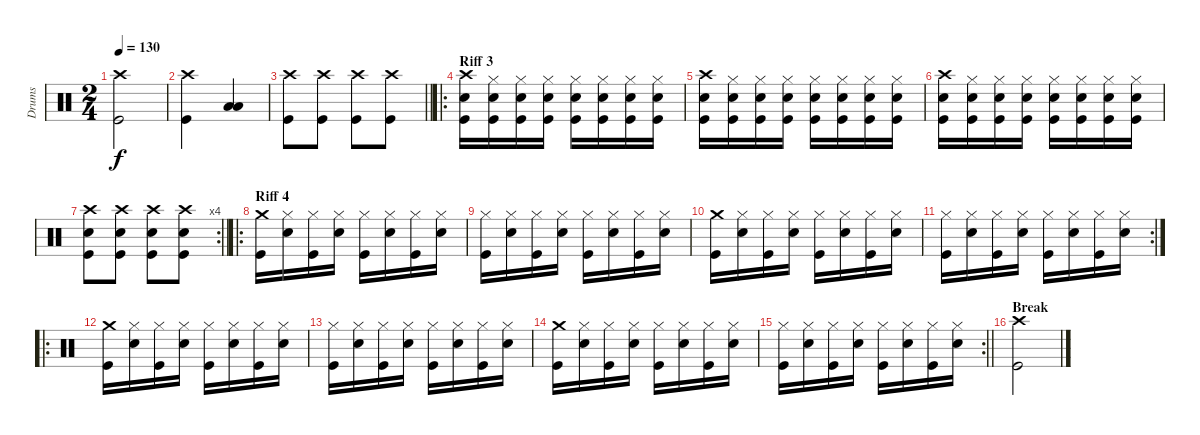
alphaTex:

\track ("Drums" "Drums") {instrument percussion}
\staff {score}
\articulation defaults
\ts (2 4)
\tempo 130
\clef neutral
\ks c
("Crash high (hit)" "Kick (hit)").2{dy f} |
("Crash high (hit)" "Kick (hit)").4 ("Low Floor Tom (hit)" "Low Floor Tom (hit)").4 |
\barLineRight lightlight
("Crash high (hit)" "Kick (hit)").8 ("Crash high (hit)" "Kick (hit)").8 ("Crash high (hit)" "Kick (hit)").8 ("Crash high (hit)" "Kick (hit)").8 |
\ro
\section ("" "Riff 3")
("Crash high (hit)" "Snare (hit) 2" "Kick (hit)").16 ("Hi-Hat (closed)" "Snare (hit) 2" "Kick (hit)").16 ("Hi-Hat (closed)" "Snare (hit) 2" "Kick (hit)").16 ("Hi-Hat (closed)" "Snare (hit) 2" "Kick (hit)").16 ("Hi-Hat (closed)" "Snare (hit) 2" "Kick (hit)").16 ("Hi-Hat (closed)" "Snare (hit) 2" "Kick (hit)").16 ("Hi-Hat (closed)" "Snare (hit) 2" "Kick (hit)").16 ("Hi-Hat (closed)" "Snare (hit) 2" "Kick (hit)").16 |
("Crash high (hit)" "Snare (hit) 2" "Kick (hit)").16 ("Hi-Hat (closed)" "Snare (hit) 2" "Kick (hit)").16 ("Hi-Hat (closed)" "Snare (hit) 2" "Kick (hit)").16 ("Hi-Hat (closed)" "Snare (hit) 2" "Kick (hit)").16 ("Hi-Hat (closed)" "Snare (hit) 2" "Kick (hit)").16 ("Hi-Hat (closed)" "Snare (hit) 2" "Kick (hit)").16 ("Hi-Hat (closed)" "Snare (hit) 2" "Kick (hit)").16 ("Hi-Hat (closed)" "Snare (hit) 2" "Kick (hit)").16 |
("Crash high (hit)" "Snare (hit) 2" "Kick (hit)").16 ("Hi-Hat (closed)" "Snare (hit) 2" "Kick (hit)").16 ("Hi-Hat (closed)" "Snare (hit) 2" "Kick (hit)").16 ("Hi-Hat (closed)" "Snare (hit) 2" "Kick (hit)").16 ("Hi-Hat (closed)" "Snare (hit) 2" "Kick (hit)").16 ("Hi-Hat (closed)" "Snare (hit) 2" "Kick (hit)").16 ("Hi-Hat (closed)" "Snare (hit) 2" "Kick (hit)").16 ("Hi-Hat (closed)" "Snare (hit) 2" "Kick (hit)").16 |
\rc 4
\barLineRight lightlight
("Crash high (hit)" "Snare (hit) 2" "Kick (hit)").8 ("Crash high (hit)" "Snare (hit) 2" "Kick (hit)").8 ("Crash high (hit)" "Snare (hit) 2" "Kick (hit)").8 ("Crash high (hit)" "Snare (hit) 2" "Kick (hit)").8 |
\ro
\section ("" "Riff 4")
("Crash medium (hit)" "Kick (hit)").16 ("Hi-Hat (closed)" "Snare (hit) 2").16 ("Hi-Hat (closed)" "Kick (hit)").16 ("Hi-Hat (closed)" "Snare (hit) 2").16 ("Hi-Hat (closed)" "Kick (hit)").16 ("Hi-Hat (closed)" "Snare (hit) 2").16 ("Hi-Hat (closed)" "Kick (hit)").16 ("Hi-Hat (closed)" "Snare (hit) 2").16 |
("Hi-Hat (closed)" "Kick (hit)").16 ("Hi-Hat (closed)" "Snare (hit) 2").16 ("Hi-Hat (closed)" "Kick (hit)").16 ("Hi-Hat (closed)" "Snare (hit) 2").16 ("Hi-Hat (closed)" "Kick (hit)").16 ("Hi-Hat (closed)" "Snare (hit) 2").16 ("Hi-Hat (closed)" "Kick (hit)").16 ("Hi-Hat (closed)" "Snare (hit) 2").16 |
("Crash medium (hit)" "Kick (hit)").16 ("Hi-Hat (closed)" "Snare (hit) 2").16 ("Hi-Hat (closed)" "Kick (hit)").16 ("Hi-Hat (closed)" "Snare (hit) 2").16 ("Hi-Hat (closed)" "Kick (hit)").16 ("Hi-Hat (closed)" "Snare (hit) 2").16 ("Hi-Hat (closed)" "Kick (hit)").16 ("Hi-Hat (closed)" "Snare (hit) 2").16 |
\rc 2
("Hi-Hat (closed)" "Kick (hit)").16 ("Hi-Hat (closed)" "Snare (hit) 2").16 ("Hi-Hat (closed)" "Kick (hit)").16 ("Hi-Hat (closed)" "Snare (hit) 2").16 ("Hi-Hat (closed)" "Kick (hit)").16 ("Hi-Hat (closed)" "Snare (hit) 2").16 ("Hi-Hat (closed)" "Kick (hit)").16 ("Hi-Hat (closed)" "Snare (hit) 2").16 |
\ro
("Crash medium (hit)" "Kick (hit)").16 ("Hi-Hat (closed)" "Snare (hit) 2").16 ("Hi-Hat (closed)" "Kick (hit)").16 ("Hi-Hat (closed)" "Snare (hit) 2").16 ("Hi-Hat (closed)" "Kick (hit)").16 ("Hi-Hat (closed)" "Snare (hit) 2").16 ("Hi-Hat (closed)" "Kick (hit)").16 ("Hi-Hat (closed)" "Snare (hit) 2").16 |
("Hi-Hat (closed)" "Kick (hit)").16 ("Hi-Hat (closed)" "Snare (hit) 2").16 ("Hi-Hat (closed)" "Kick (hit)").16 ("Hi-Hat (closed)" "Snare (hit) 2").16 ("Hi-Hat (closed)" "Kick (hit)").16 ("Hi-Hat (closed)" "Snare (hit) 2").16 ("Hi-Hat (closed)" "Kick (hit)").16 ("Hi-Hat (closed)" "Snare (hit) 2").16 |
("Crash medium (hit)" "Kick (hit)").16 ("Hi-Hat (closed)" "Snare (hit) 2").16 ("Hi-Hat (closed)" "Kick (hit)").16 ("Hi-Hat (closed)" "Snare (hit) 2").16 ("Hi-Hat (closed)" "Kick (hit)").16 ("Hi-Hat (closed)" "Snare (hit) 2").16 ("Hi-Hat (closed)" "Kick (hit)").16 ("Hi-Hat (closed)" "Snare (hit) 2").16 |
\rc 2
\barLineRight lightlight
("Hi-Hat (closed)" "Kick (hit)").16 ("Hi-Hat (closed)" "Snare (hit) 2").16 ("Hi-Hat (closed)" "Kick (hit)").16 ("Hi-Hat (closed)" "Snare (hit) 2").16 ("Hi-Hat (closed)" "Kick (hit)").16 ("Hi-Hat (closed)" "Snare (hit) 2").16 ("Hi-Hat (closed)" "Kick (hit)").16 ("Hi-Hat (closed)" "Snare (hit) 2").16 |
\section ("" "Break")
("Crash high (hit)" "Kick (hit)").2
